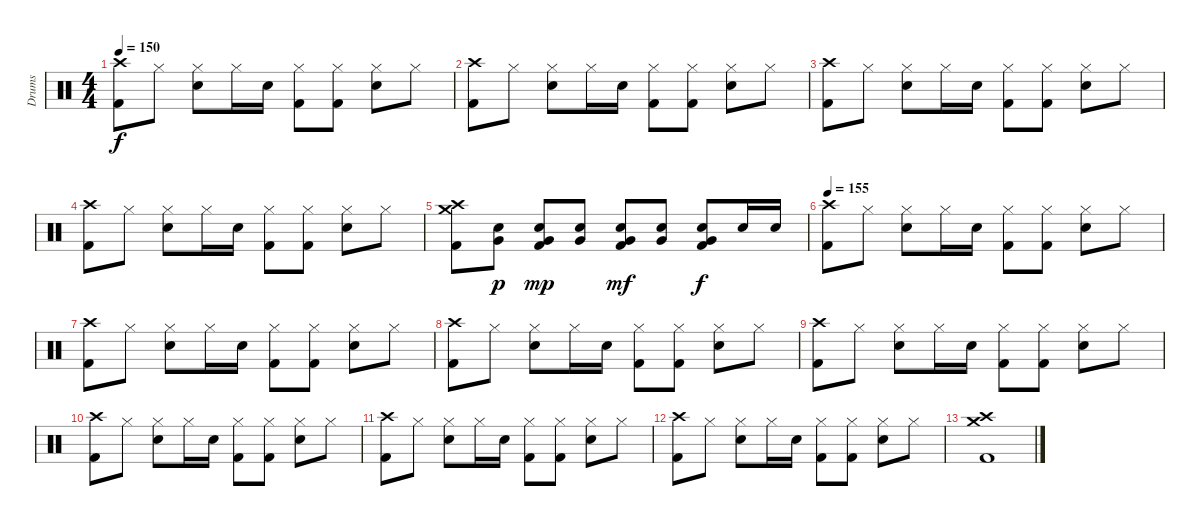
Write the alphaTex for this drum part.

\track ("Drums" "Drums") {instrument percussion}
\staff {score}
\articulation defaults
\ts (4 4)
\tempo 150
\clef neutral
\ks c
("Crash high (hit)" "Kick (hit) 2").8{dy f} "Hi-Hat (closed)".8 ("Hi-Hat (closed)" "Snare (hit) 2").8 "Hi-Hat (closed)".16 "Snare (hit) 2".16 ("Hi-Hat (closed)" "Kick (hit) 2").8 ("Hi-Hat (closed)" "Kick (hit) 2").8 ("Hi-Hat (closed)" "Snare (hit) 2").8 "Hi-Hat (closed)".8 |
("Crash high (hit)" "Kick (hit) 2").8 "Hi-Hat (closed)".8 ("Hi-Hat (closed)" "Snare (hit) 2").8 "Hi-Hat (closed)".16 "Snare (hit) 2".16 ("Hi-Hat (closed)" "Kick (hit) 2").8 ("Hi-Hat (closed)" "Kick (hit) 2").8 ("Hi-Hat (closed)" "Snare (hit) 2").8 "Hi-Hat (closed)".8 |
("Crash high (hit)" "Kick (hit) 2").8 "Hi-Hat (closed)".8 ("Hi-Hat (closed)" "Snare (hit) 2").8 "Hi-Hat (closed)".16 "Snare (hit) 2".16 ("Hi-Hat (closed)" "Kick (hit) 2").8 ("Hi-Hat (closed)" "Kick (hit) 2").8 ("Hi-Hat (closed)" "Snare (hit) 2").8 "Hi-Hat (closed)".8 |
("Crash high (hit)" "Kick (hit) 2").8 "Hi-Hat (closed)".8 ("Hi-Hat (closed)" "Snare (hit) 2").8 "Hi-Hat (closed)".16 "Snare (hit) 2".16 ("Hi-Hat (closed)" "Kick (hit) 2").8 ("Hi-Hat (closed)" "Kick (hit) 2").8 ("Hi-Hat (closed)" "Snare (hit) 2").8 "Hi-Hat (closed)".8 |
("Crash high (hit)" "Crash medium (hit)" "Kick (hit) 2").8 ("Very Low Tom (hit)" "Snare (hit) 2").8{dy p} ("Very Low Tom (hit)" "Snare (hit) 2" "Kick (hit) 2").8{dy mp} ("Very Low Tom (hit)" "Snare (hit) 2").8 ("Very Low Tom (hit)" "Snare (hit) 2" "Kick (hit) 2").8{dy mf} ("Very Low Tom (hit)" "Snare (hit) 2").8 ("Very Low Tom (hit)" "Snare (hit) 2" "Kick (hit) 2").8{dy f} "Snare (hit) 2".16 "Snare (hit) 2".16 |
\tempo 155
("Crash high (hit)" "Kick (hit) 2").8 "Hi-Hat (closed)".8 ("Hi-Hat (closed)" "Snare (hit) 2").8 "Hi-Hat (closed)".16 "Snare (hit) 2".16 ("Hi-Hat (closed)" "Kick (hit) 2").8 ("Hi-Hat (closed)" "Kick (hit) 2").8 ("Hi-Hat (closed)" "Snare (hit) 2").8 "Hi-Hat (closed)".8 |
("Crash high (hit)" "Kick (hit) 2").8 "Hi-Hat (closed)".8 ("Hi-Hat (closed)" "Snare (hit) 2").8 "Hi-Hat (closed)".16 "Snare (hit) 2".16 ("Hi-Hat (closed)" "Kick (hit) 2").8 ("Hi-Hat (closed)" "Kick (hit) 2").8 ("Hi-Hat (closed)" "Snare (hit) 2").8 "Hi-Hat (closed)".8 |
("Crash high (hit)" "Kick (hit) 2").8 "Hi-Hat (closed)".8 ("Hi-Hat (closed)" "Snare (hit) 2").8 "Hi-Hat (closed)".16 "Snare (hit) 2".16 ("Hi-Hat (closed)" "Kick (hit) 2").8 ("Hi-Hat (closed)" "Kick (hit) 2").8 ("Hi-Hat (closed)" "Snare (hit) 2").8 "Hi-Hat (closed)".8 |
("Crash high (hit)" "Kick (hit) 2").8 "Hi-Hat (closed)".8 ("Hi-Hat (closed)" "Snare (hit) 2").8 "Hi-Hat (closed)".16 "Snare (hit) 2".16 ("Hi-Hat (closed)" "Kick (hit) 2").8 ("Hi-Hat (closed)" "Kick (hit) 2").8 ("Hi-Hat (closed)" "Snare (hit) 2").8 "Hi-Hat (closed)".8 |
("Crash high (hit)" "Kick (hit) 2").8 "Hi-Hat (closed)".8 ("Hi-Hat (closed)" "Snare (hit) 2").8 "Hi-Hat (closed)".16 "Snare (hit) 2".16 ("Hi-Hat (closed)" "Kick (hit) 2").8 ("Hi-Hat (closed)" "Kick (hit) 2").8 ("Hi-Hat (closed)" "Snare (hit) 2").8 "Hi-Hat (closed)".8 |
("Crash high (hit)" "Kick (hit) 2").8 "Hi-Hat (closed)".8 ("Hi-Hat (closed)" "Snare (hit) 2").8 "Hi-Hat (closed)".16 "Snare (hit) 2".16 ("Hi-Hat (closed)" "Kick (hit) 2").8 ("Hi-Hat (closed)" "Kick (hit) 2").8 ("Hi-Hat (closed)" "Snare (hit) 2").8 "Hi-Hat (closed)".8 |
("Crash high (hit)" "Kick (hit) 2").8 "Hi-Hat (closed)".8 ("Hi-Hat (closed)" "Snare (hit) 2").8 "Hi-Hat (closed)".16 "Snare (hit) 2".16 ("Hi-Hat (closed)" "Kick (hit) 2").8 ("Hi-Hat (closed)" "Kick (hit) 2").8 ("Hi-Hat (closed)" "Snare (hit) 2").8 "Hi-Hat (closed)".8 |
("Crash high (hit)" "Crash medium (hit)" "Kick (hit) 2").1
